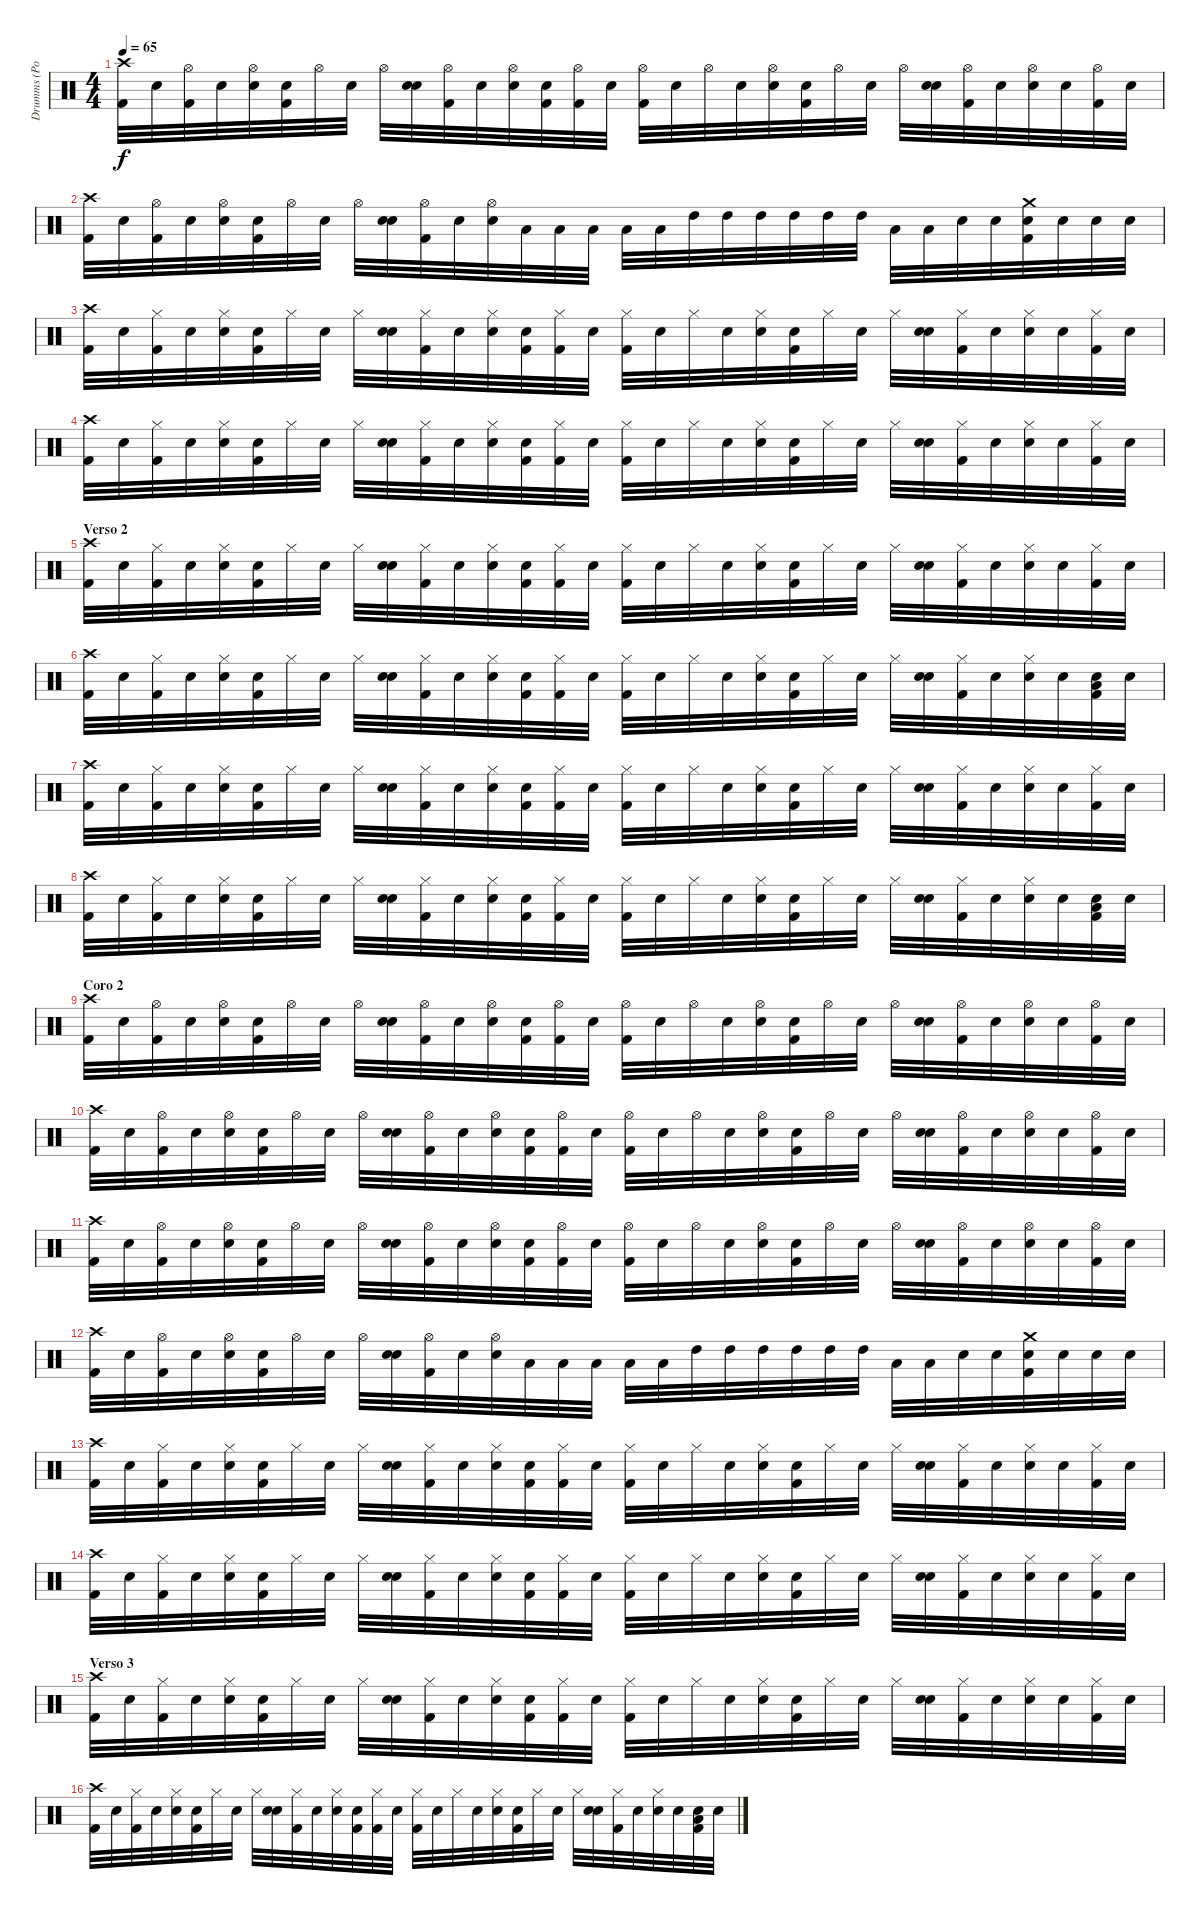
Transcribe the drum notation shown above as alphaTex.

\track ("Drumms (Poll0)" "Drumms (Po") {instrument percussion}
\staff {score}
\articulation defaults
\ts (4 4)
\tempo 65
\clef neutral
\ks c
("Crash high (hit)" "Kick (hit) 2").32{dy f} "Snare (hit)".32 ("Hi-Hat (open)" "Kick (hit) 2").32 "Snare (hit)".32 ("Hi-Hat (open)" "Snare (hit) 2").32 ("Snare (hit)" "Kick (hit) 2").32 "Hi-Hat (open)".32 "Snare (hit)".32 "Hi-Hat (open)".32 ("Snare (hit)" "Snare (hit) 2").32 ("Hi-Hat (open)" "Kick (hit) 2").32 "Snare (hit)".32 ("Hi-Hat (open)" "Snare (hit) 2").32 ("Snare (hit)" "Kick (hit) 2").32 ("Hi-Hat (open)" "Kick (hit) 2").32 "Snare (hit)".32 ("Hi-Hat (open)" "Kick (hit) 2").32 "Snare (hit)".32 "Hi-Hat (open)".32 "Snare (hit)".32 ("Hi-Hat (open)" "Snare (hit) 2").32 ("Snare (hit)" "Kick (hit) 2").32 "Hi-Hat (open)".32 "Snare (hit)".32 "Hi-Hat (open)".32 ("Snare (hit)" "Snare (hit) 2").32 ("Hi-Hat (open)" "Kick (hit) 2").32 "Snare (hit)".32 ("Hi-Hat (open)" "Snare (hit) 2").32 "Snare (hit)".32 ("Hi-Hat (open)" "Kick (hit) 2").32 "Snare (hit)".32 |
("Crash high (hit)" "Kick (hit) 2").32 "Snare (hit)".32 ("Hi-Hat (open)" "Kick (hit) 2").32 "Snare (hit)".32 ("Hi-Hat (open)" "Snare (hit) 2").32 ("Snare (hit)" "Kick (hit) 2").32 "Hi-Hat (open)".32 "Snare (hit)".32 "Hi-Hat (open)".32 ("Snare (hit)" "Snare (hit) 2").32 ("Hi-Hat (open)" "Kick (hit) 2").32 "Snare (hit)".32 ("Hi-Hat (open)" "Snare (hit) 2").32 "Low Floor Tom (hit)".32 "Low Floor Tom (hit)".32 "Low Floor Tom (hit)".32 "Low Floor Tom (hit)".32 "Low Floor Tom (hit)".32 "High Tom (hit)".32 "High Tom (hit)".32 "High Tom (hit)".32 "High Tom (hit)".32 "High Tom (hit)".32 "High Tom (hit)".32 "Low Tom (hit)".32 "Low Tom (hit)".32 "Snare (hit)".32 "Snare (hit)".32 ("Crash medium (hit)" "Snare (hit)" "Kick (hit) 2").32 "Snare (hit)".32 "Snare (hit)".32 "Snare (hit)".32 |
("Crash high (hit)" "Kick (hit) 2").32 "Snare (hit)".32 ("Hi-Hat (closed)" "Kick (hit) 2").32 "Snare (hit)".32 ("Hi-Hat (closed)" "Snare (hit) 2").32 ("Snare (hit)" "Kick (hit) 2").32 "Hi-Hat (closed)".32 "Snare (hit)".32 "Hi-Hat (closed)".32 ("Snare (hit)" "Snare (hit) 2").32 ("Hi-Hat (closed)" "Kick (hit) 2").32 "Snare (hit)".32 ("Hi-Hat (closed)" "Snare (hit) 2").32 ("Snare (hit)" "Kick (hit) 2").32 ("Hi-Hat (closed)" "Kick (hit) 2").32 "Snare (hit)".32 ("Hi-Hat (closed)" "Kick (hit) 2").32 "Snare (hit)".32 "Hi-Hat (closed)".32 "Snare (hit)".32 ("Hi-Hat (closed)" "Snare (hit) 2").32 ("Snare (hit)" "Kick (hit) 2").32 "Hi-Hat (closed)".32 "Snare (hit)".32 "Hi-Hat (closed)".32 ("Snare (hit)" "Snare (hit) 2").32 ("Hi-Hat (closed)" "Kick (hit) 2").32 "Snare (hit)".32 ("Hi-Hat (closed)" "Snare (hit) 2").32 "Snare (hit)".32 ("Hi-Hat (closed)" "Kick (hit) 2").32 "Snare (hit)".32 |
("Crash high (hit)" "Kick (hit) 2").32 "Snare (hit)".32 ("Hi-Hat (closed)" "Kick (hit) 2").32 "Snare (hit)".32 ("Hi-Hat (closed)" "Snare (hit) 2").32 ("Snare (hit)" "Kick (hit) 2").32 "Hi-Hat (closed)".32 "Snare (hit)".32 "Hi-Hat (closed)".32 ("Snare (hit)" "Snare (hit) 2").32 ("Hi-Hat (closed)" "Kick (hit) 2").32 "Snare (hit)".32 ("Hi-Hat (closed)" "Snare (hit) 2").32 ("Snare (hit)" "Kick (hit) 2").32 ("Hi-Hat (closed)" "Kick (hit) 2").32 "Snare (hit)".32 ("Hi-Hat (closed)" "Kick (hit) 2").32 "Snare (hit)".32 "Hi-Hat (closed)".32 "Snare (hit)".32 ("Hi-Hat (closed)" "Snare (hit) 2").32 ("Snare (hit)" "Kick (hit) 2").32 "Hi-Hat (closed)".32 "Snare (hit)".32 "Hi-Hat (closed)".32 ("Snare (hit)" "Snare (hit) 2").32 ("Hi-Hat (closed)" "Kick (hit) 2").32 "Snare (hit)".32 ("Hi-Hat (closed)" "Snare (hit) 2").32 "Snare (hit)".32 ("Hi-Hat (closed)" "Kick (hit) 2").32 "Snare (hit)".32 |
\section ("" "Verso 2")
("Crash high (hit)" "Kick (hit) 2").32 "Snare (hit)".32 ("Hi-Hat (closed)" "Kick (hit) 2").32 "Snare (hit)".32 ("Hi-Hat (closed)" "Snare (hit) 2").32 ("Snare (hit)" "Kick (hit) 2").32 "Hi-Hat (closed)".32 "Snare (hit)".32 "Hi-Hat (closed)".32 ("Snare (hit)" "Snare (hit) 2").32 ("Hi-Hat (closed)" "Kick (hit) 2").32 "Snare (hit)".32 ("Hi-Hat (closed)" "Snare (hit) 2").32 ("Snare (hit)" "Kick (hit) 2").32 ("Hi-Hat (closed)" "Kick (hit) 2").32 "Snare (hit)".32 ("Hi-Hat (closed)" "Kick (hit) 2").32 "Snare (hit)".32 "Hi-Hat (closed)".32 "Snare (hit)".32 ("Hi-Hat (closed)" "Snare (hit) 2").32 ("Snare (hit)" "Kick (hit) 2").32 "Hi-Hat (closed)".32 "Snare (hit)".32 "Hi-Hat (closed)".32 ("Snare (hit)" "Snare (hit) 2").32 ("Hi-Hat (closed)" "Kick (hit) 2").32 "Snare (hit)".32 ("Hi-Hat (closed)" "Snare (hit) 2").32 "Snare (hit)".32 ("Hi-Hat (closed)" "Kick (hit) 2").32 "Snare (hit)".32 |
("Crash high (hit)" "Kick (hit) 2").32 "Snare (hit)".32 ("Hi-Hat (closed)" "Kick (hit) 2").32 "Snare (hit)".32 ("Hi-Hat (closed)" "Snare (hit) 2").32 ("Snare (hit)" "Kick (hit) 2").32 "Hi-Hat (closed)".32 "Snare (hit)".32 "Hi-Hat (closed)".32 ("Snare (hit)" "Snare (hit) 2").32 ("Hi-Hat (closed)" "Kick (hit) 2").32 "Snare (hit)".32 ("Hi-Hat (closed)" "Snare (hit) 2").32 ("Snare (hit)" "Kick (hit) 2").32 ("Hi-Hat (closed)" "Kick (hit) 2").32 "Snare (hit)".32 ("Hi-Hat (closed)" "Kick (hit) 2").32 "Snare (hit)".32 "Hi-Hat (closed)".32 "Snare (hit)".32 ("Hi-Hat (closed)" "Snare (hit) 2").32 ("Snare (hit)" "Kick (hit) 2").32 "Hi-Hat (closed)".32 "Snare (hit)".32 "Hi-Hat (closed)".32 ("Snare (hit)" "Snare (hit) 2").32 ("Hi-Hat (closed)" "Kick (hit) 2").32 "Snare (hit)".32 ("Hi-Hat (closed)" "Snare (hit) 2").32 "Snare (hit)".32 ("Snare (hit) 2" "Low Tom (hit)" "Kick (hit) 2").32 "Snare (hit)".32 |
("Crash high (hit)" "Kick (hit) 2").32 "Snare (hit)".32 ("Hi-Hat (closed)" "Kick (hit) 2").32 "Snare (hit)".32 ("Hi-Hat (closed)" "Snare (hit) 2").32 ("Snare (hit)" "Kick (hit) 2").32 "Hi-Hat (closed)".32 "Snare (hit)".32 "Hi-Hat (closed)".32 ("Snare (hit)" "Snare (hit) 2").32 ("Hi-Hat (closed)" "Kick (hit) 2").32 "Snare (hit)".32 ("Hi-Hat (closed)" "Snare (hit) 2").32 ("Snare (hit)" "Kick (hit) 2").32 ("Hi-Hat (closed)" "Kick (hit) 2").32 "Snare (hit)".32 ("Hi-Hat (closed)" "Kick (hit) 2").32 "Snare (hit)".32 "Hi-Hat (closed)".32 "Snare (hit)".32 ("Hi-Hat (closed)" "Snare (hit) 2").32 ("Snare (hit)" "Kick (hit) 2").32 "Hi-Hat (closed)".32 "Snare (hit)".32 "Hi-Hat (closed)".32 ("Snare (hit)" "Snare (hit) 2").32 ("Hi-Hat (closed)" "Kick (hit) 2").32 "Snare (hit)".32 ("Hi-Hat (closed)" "Snare (hit) 2").32 "Snare (hit)".32 ("Hi-Hat (closed)" "Kick (hit) 2").32 "Snare (hit)".32 |
("Crash high (hit)" "Kick (hit) 2").32 "Snare (hit)".32 ("Hi-Hat (closed)" "Kick (hit) 2").32 "Snare (hit)".32 ("Hi-Hat (closed)" "Snare (hit) 2").32 ("Snare (hit)" "Kick (hit) 2").32 "Hi-Hat (closed)".32 "Snare (hit)".32 "Hi-Hat (closed)".32 ("Snare (hit)" "Snare (hit) 2").32 ("Hi-Hat (closed)" "Kick (hit) 2").32 "Snare (hit)".32 ("Hi-Hat (closed)" "Snare (hit) 2").32 ("Snare (hit)" "Kick (hit) 2").32 ("Hi-Hat (closed)" "Kick (hit) 2").32 "Snare (hit)".32 ("Hi-Hat (closed)" "Kick (hit) 2").32 "Snare (hit)".32 "Hi-Hat (closed)".32 "Snare (hit)".32 ("Hi-Hat (closed)" "Snare (hit) 2").32 ("Snare (hit)" "Kick (hit) 2").32 "Hi-Hat (closed)".32 "Snare (hit)".32 "Hi-Hat (closed)".32 ("Snare (hit)" "Snare (hit) 2").32 ("Hi-Hat (closed)" "Kick (hit) 2").32 "Snare (hit)".32 ("Hi-Hat (closed)" "Snare (hit) 2").32 "Snare (hit)".32 ("Snare (hit) 2" "Low Tom (hit)" "Kick (hit) 2").32 "Snare (hit)".32 |
\section ("" "Coro 2")
("Crash high (hit)" "Kick (hit) 2").32 "Snare (hit)".32 ("Hi-Hat (open)" "Kick (hit) 2").32 "Snare (hit)".32 ("Hi-Hat (open)" "Snare (hit) 2").32 ("Snare (hit)" "Kick (hit) 2").32 "Hi-Hat (open)".32 "Snare (hit)".32 "Hi-Hat (open)".32 ("Snare (hit)" "Snare (hit) 2").32 ("Hi-Hat (open)" "Kick (hit) 2").32 "Snare (hit)".32 ("Hi-Hat (open)" "Snare (hit) 2").32 ("Snare (hit)" "Kick (hit) 2").32 ("Hi-Hat (open)" "Kick (hit) 2").32 "Snare (hit)".32 ("Hi-Hat (open)" "Kick (hit) 2").32 "Snare (hit)".32 "Hi-Hat (open)".32 "Snare (hit)".32 ("Hi-Hat (open)" "Snare (hit) 2").32 ("Snare (hit)" "Kick (hit) 2").32 "Hi-Hat (open)".32 "Snare (hit)".32 "Hi-Hat (open)".32 ("Snare (hit)" "Snare (hit) 2").32 ("Hi-Hat (open)" "Kick (hit) 2").32 "Snare (hit)".32 ("Hi-Hat (open)" "Snare (hit) 2").32 "Snare (hit)".32 ("Hi-Hat (open)" "Kick (hit) 2").32 "Snare (hit)".32 |
("Crash high (hit)" "Kick (hit) 2").32 "Snare (hit)".32 ("Hi-Hat (open)" "Kick (hit) 2").32 "Snare (hit)".32 ("Hi-Hat (open)" "Snare (hit) 2").32 ("Snare (hit)" "Kick (hit) 2").32 "Hi-Hat (open)".32 "Snare (hit)".32 "Hi-Hat (open)".32 ("Snare (hit)" "Snare (hit) 2").32 ("Hi-Hat (open)" "Kick (hit) 2").32 "Snare (hit)".32 ("Hi-Hat (open)" "Snare (hit) 2").32 ("Snare (hit)" "Kick (hit) 2").32 ("Hi-Hat (open)" "Kick (hit) 2").32 "Snare (hit)".32 ("Hi-Hat (open)" "Kick (hit) 2").32 "Snare (hit)".32 "Hi-Hat (open)".32 "Snare (hit)".32 ("Hi-Hat (open)" "Snare (hit) 2").32 ("Snare (hit)" "Kick (hit) 2").32 "Hi-Hat (open)".32 "Snare (hit)".32 "Hi-Hat (open)".32 ("Snare (hit)" "Snare (hit) 2").32 ("Hi-Hat (open)" "Kick (hit) 2").32 "Snare (hit)".32 ("Hi-Hat (open)" "Snare (hit) 2").32 "Snare (hit)".32 ("Hi-Hat (open)" "Kick (hit) 2").32 "Snare (hit)".32 |
("Crash high (hit)" "Kick (hit) 2").32 "Snare (hit)".32 ("Hi-Hat (open)" "Kick (hit) 2").32 "Snare (hit)".32 ("Hi-Hat (open)" "Snare (hit) 2").32 ("Snare (hit)" "Kick (hit) 2").32 "Hi-Hat (open)".32 "Snare (hit)".32 "Hi-Hat (open)".32 ("Snare (hit)" "Snare (hit) 2").32 ("Hi-Hat (open)" "Kick (hit) 2").32 "Snare (hit)".32 ("Hi-Hat (open)" "Snare (hit) 2").32 ("Snare (hit)" "Kick (hit) 2").32 ("Hi-Hat (open)" "Kick (hit) 2").32 "Snare (hit)".32 ("Hi-Hat (open)" "Kick (hit) 2").32 "Snare (hit)".32 "Hi-Hat (open)".32 "Snare (hit)".32 ("Hi-Hat (open)" "Snare (hit) 2").32 ("Snare (hit)" "Kick (hit) 2").32 "Hi-Hat (open)".32 "Snare (hit)".32 "Hi-Hat (open)".32 ("Snare (hit)" "Snare (hit) 2").32 ("Hi-Hat (open)" "Kick (hit) 2").32 "Snare (hit)".32 ("Hi-Hat (open)" "Snare (hit) 2").32 "Snare (hit)".32 ("Hi-Hat (open)" "Kick (hit) 2").32 "Snare (hit)".32 |
("Crash high (hit)" "Kick (hit) 2").32 "Snare (hit)".32 ("Hi-Hat (open)" "Kick (hit) 2").32 "Snare (hit)".32 ("Hi-Hat (open)" "Snare (hit) 2").32 ("Snare (hit)" "Kick (hit) 2").32 "Hi-Hat (open)".32 "Snare (hit)".32 "Hi-Hat (open)".32 ("Snare (hit)" "Snare (hit) 2").32 ("Hi-Hat (open)" "Kick (hit) 2").32 "Snare (hit)".32 ("Hi-Hat (open)" "Snare (hit) 2").32 "Low Floor Tom (hit)".32 "Low Floor Tom (hit)".32 "Low Floor Tom (hit)".32 "Low Floor Tom (hit)".32 "Low Floor Tom (hit)".32 "High Tom (hit)".32 "High Tom (hit)".32 "High Tom (hit)".32 "High Tom (hit)".32 "High Tom (hit)".32 "High Tom (hit)".32 "Low Tom (hit)".32 "Low Tom (hit)".32 "Snare (hit)".32 "Snare (hit)".32 ("Crash medium (hit)" "Snare (hit)" "Kick (hit) 2").32 "Snare (hit)".32 "Snare (hit)".32 "Snare (hit)".32 |
("Crash high (hit)" "Kick (hit) 2").32 "Snare (hit)".32 ("Hi-Hat (closed)" "Kick (hit) 2").32 "Snare (hit)".32 ("Hi-Hat (closed)" "Snare (hit) 2").32 ("Snare (hit)" "Kick (hit) 2").32 "Hi-Hat (closed)".32 "Snare (hit)".32 "Hi-Hat (closed)".32 ("Snare (hit)" "Snare (hit) 2").32 ("Hi-Hat (closed)" "Kick (hit) 2").32 "Snare (hit)".32 ("Hi-Hat (closed)" "Snare (hit) 2").32 ("Snare (hit)" "Kick (hit) 2").32 ("Hi-Hat (closed)" "Kick (hit) 2").32 "Snare (hit)".32 ("Hi-Hat (closed)" "Kick (hit) 2").32 "Snare (hit)".32 "Hi-Hat (closed)".32 "Snare (hit)".32 ("Hi-Hat (closed)" "Snare (hit) 2").32 ("Snare (hit)" "Kick (hit) 2").32 "Hi-Hat (closed)".32 "Snare (hit)".32 "Hi-Hat (closed)".32 ("Snare (hit)" "Snare (hit) 2").32 ("Hi-Hat (closed)" "Kick (hit) 2").32 "Snare (hit)".32 ("Hi-Hat (closed)" "Snare (hit) 2").32 "Snare (hit)".32 ("Hi-Hat (closed)" "Kick (hit) 2").32 "Snare (hit)".32 |
("Crash high (hit)" "Kick (hit) 2").32 "Snare (hit)".32 ("Hi-Hat (closed)" "Kick (hit) 2").32 "Snare (hit)".32 ("Hi-Hat (closed)" "Snare (hit) 2").32 ("Snare (hit)" "Kick (hit) 2").32 "Hi-Hat (closed)".32 "Snare (hit)".32 "Hi-Hat (closed)".32 ("Snare (hit)" "Snare (hit) 2").32 ("Hi-Hat (closed)" "Kick (hit) 2").32 "Snare (hit)".32 ("Hi-Hat (closed)" "Snare (hit) 2").32 ("Snare (hit)" "Kick (hit) 2").32 ("Hi-Hat (closed)" "Kick (hit) 2").32 "Snare (hit)".32 ("Hi-Hat (closed)" "Kick (hit) 2").32 "Snare (hit)".32 "Hi-Hat (closed)".32 "Snare (hit)".32 ("Hi-Hat (closed)" "Snare (hit) 2").32 ("Snare (hit)" "Kick (hit) 2").32 "Hi-Hat (closed)".32 "Snare (hit)".32 "Hi-Hat (closed)".32 ("Snare (hit)" "Snare (hit) 2").32 ("Hi-Hat (closed)" "Kick (hit) 2").32 "Snare (hit)".32 ("Hi-Hat (closed)" "Snare (hit) 2").32 "Snare (hit)".32 ("Hi-Hat (closed)" "Kick (hit) 2").32 "Snare (hit)".32 |
\section ("" "Verso 3")
("Crash high (hit)" "Kick (hit) 2").32 "Snare (hit)".32 ("Hi-Hat (closed)" "Kick (hit) 2").32 "Snare (hit)".32 ("Hi-Hat (closed)" "Snare (hit) 2").32 ("Snare (hit)" "Kick (hit) 2").32 "Hi-Hat (closed)".32 "Snare (hit)".32 "Hi-Hat (closed)".32 ("Snare (hit)" "Snare (hit) 2").32 ("Hi-Hat (closed)" "Kick (hit) 2").32 "Snare (hit)".32 ("Hi-Hat (closed)" "Snare (hit) 2").32 ("Snare (hit)" "Kick (hit) 2").32 ("Hi-Hat (closed)" "Kick (hit) 2").32 "Snare (hit)".32 ("Hi-Hat (closed)" "Kick (hit) 2").32 "Snare (hit)".32 "Hi-Hat (closed)".32 "Snare (hit)".32 ("Hi-Hat (closed)" "Snare (hit) 2").32 ("Snare (hit)" "Kick (hit) 2").32 "Hi-Hat (closed)".32 "Snare (hit)".32 "Hi-Hat (closed)".32 ("Snare (hit)" "Snare (hit) 2").32 ("Hi-Hat (closed)" "Kick (hit) 2").32 "Snare (hit)".32 ("Hi-Hat (closed)" "Snare (hit) 2").32 "Snare (hit)".32 ("Hi-Hat (closed)" "Kick (hit) 2").32 "Snare (hit)".32 |
("Crash high (hit)" "Kick (hit) 2").32 "Snare (hit)".32 ("Hi-Hat (closed)" "Kick (hit) 2").32 "Snare (hit)".32 ("Hi-Hat (closed)" "Snare (hit) 2").32 ("Snare (hit)" "Kick (hit) 2").32 "Hi-Hat (closed)".32 "Snare (hit)".32 "Hi-Hat (closed)".32 ("Snare (hit)" "Snare (hit) 2").32 ("Hi-Hat (closed)" "Kick (hit) 2").32 "Snare (hit)".32 ("Hi-Hat (closed)" "Snare (hit) 2").32 ("Snare (hit)" "Kick (hit) 2").32 ("Hi-Hat (closed)" "Kick (hit) 2").32 "Snare (hit)".32 ("Hi-Hat (closed)" "Kick (hit) 2").32 "Snare (hit)".32 "Hi-Hat (closed)".32 "Snare (hit)".32 ("Hi-Hat (closed)" "Snare (hit) 2").32 ("Snare (hit)" "Kick (hit) 2").32 "Hi-Hat (closed)".32 "Snare (hit)".32 "Hi-Hat (closed)".32 ("Snare (hit)" "Snare (hit) 2").32 ("Hi-Hat (closed)" "Kick (hit) 2").32 "Snare (hit)".32 ("Hi-Hat (closed)" "Snare (hit) 2").32 "Snare (hit)".32 ("Snare (hit) 2" "Low Tom (hit)" "Kick (hit) 2").32 "Snare (hit)".32
